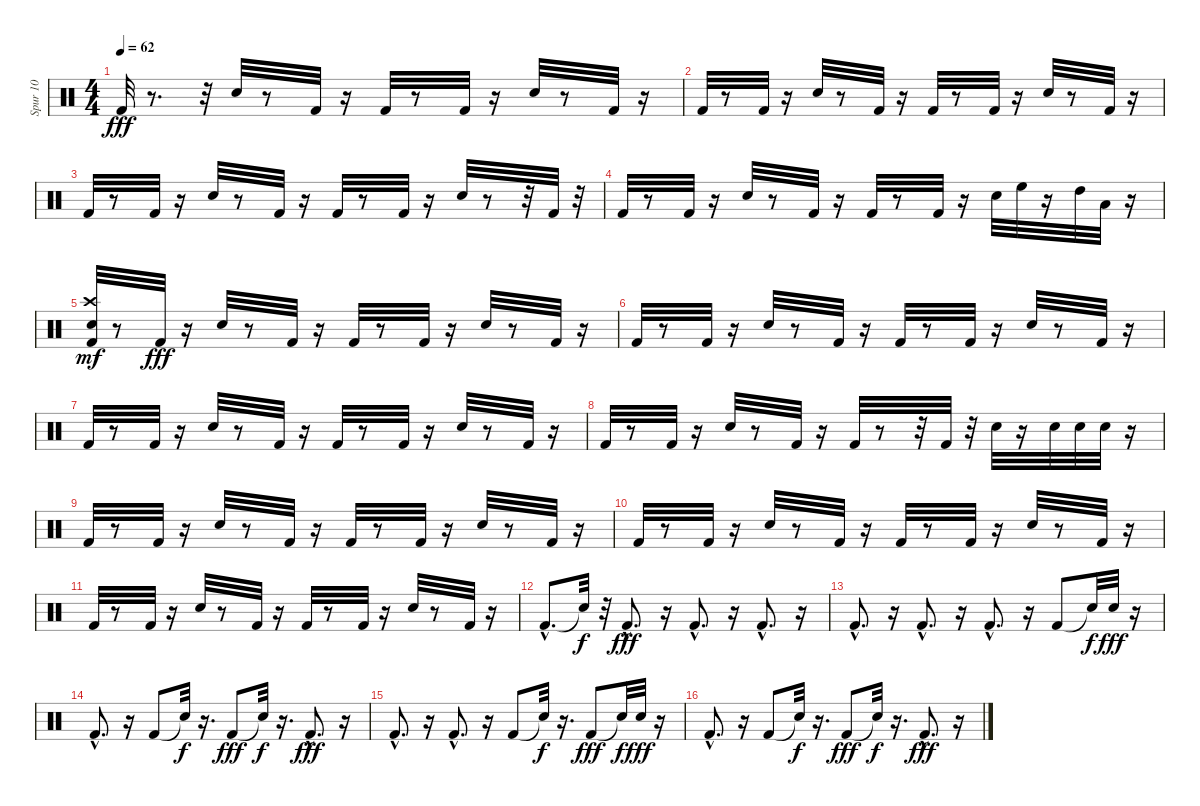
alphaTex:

\track ("Spur 10" "Spur 10") {instrument percussion}
\staff {score}
\articulation defaults
\ts (4 4)
\tempo 62
\clef neutral
\ks c "Kick (hit) 2".32{dy fff}
r.8{d} r.32 "Electric Snare (hit)".32 r.8 "Kick (hit) 2".32 r.16 "Kick (hit) 2".32 r.8 "Kick (hit) 2".32 r.16 "Electric Snare (hit)".32 r.8 "Kick (hit) 2".32 r.16 |
"Kick (hit) 2".32 r.8 "Kick (hit) 2".32 r.16 "Electric Snare (hit)".32 r.8 "Kick (hit) 2".32 r.16 "Kick (hit) 2".32 r.8 "Kick (hit) 2".32 r.16 "Electric Snare (hit)".32 r.8 "Kick (hit) 2".32 r.16 |
"Kick (hit) 2".32 r.8 "Kick (hit) 2".32 r.16 "Electric Snare (hit)".32 r.8 "Kick (hit) 2".32 r.16 "Kick (hit) 2".32 r.8 "Kick (hit) 2".32 r.16 "Electric Snare (hit)".32 r.8 r.32 "Kick (hit) 2".32 r.32 |
"Kick (hit) 2".32 r.8 "Kick (hit) 2".32 r.16 "Electric Snare (hit)".32 r.8 "Kick (hit) 2".32 r.16 "Kick (hit) 2".32 r.8 "Kick (hit) 2".32 r.16 "Electric Snare (hit)".32 "High Floor Tom (hit)".32 r.16 "High Tom (hit)".32 "Low Tom (hit)".32 r.16 |
("Crash high (hit)" "Kick (hit) 2" "Snare (hit) 2").32{dy mf} r.8 "Kick (hit) 2".32{dy fff} r.16 "Electric Snare (hit)".32 r.8 "Kick (hit) 2".32 r.16 "Kick (hit) 2".32 r.8 "Kick (hit) 2".32 r.16 "Electric Snare (hit)".32 r.8 "Kick (hit) 2".32 r.16 |
"Kick (hit) 2".32 r.8 "Kick (hit) 2".32 r.16 "Electric Snare (hit)".32 r.8 "Kick (hit) 2".32 r.16 "Kick (hit) 2".32 r.8 "Kick (hit) 2".32 r.16 "Electric Snare (hit)".32 r.8 "Kick (hit) 2".32 r.16 |
"Kick (hit) 2".32 r.8 "Kick (hit) 2".32 r.16 "Electric Snare (hit)".32 r.8 "Kick (hit) 2".32 r.16 "Kick (hit) 2".32 r.8 "Kick (hit) 2".32 r.16 "Electric Snare (hit)".32 r.8 "Kick (hit) 2".32 r.16 |
"Kick (hit) 2".32 r.8 "Kick (hit) 2".32 r.16 "Electric Snare (hit)".32 r.8 "Kick (hit) 2".32 r.16 "Kick (hit) 2".32 r.8 r.32 "Kick (hit) 2".32 r.32 "Electric Snare (hit)".32 r.16 "Electric Snare (hit)".32 "Electric Snare (hit)".32 "Electric Snare (hit)".32 r.16 |
"Kick (hit) 2".32 r.8 "Kick (hit) 2".32 r.16 "Electric Snare (hit)".32 r.8 "Kick (hit) 2".32 r.16 "Kick (hit) 2".32 r.8 "Kick (hit) 2".32 r.16 "Electric Snare (hit)".32 r.8 "Kick (hit) 2".32 r.16 |
"Kick (hit) 2".32 r.8 "Kick (hit) 2".32 r.16 "Electric Snare (hit)".32 r.8 "Kick (hit) 2".32 r.16 "Kick (hit) 2".32 r.8 "Kick (hit) 2".32 r.16 "Electric Snare (hit)".32 r.8 "Kick (hit) 2".32 r.16 |
"Kick (hit) 2".32 r.8 "Kick (hit) 2".32 r.16 "Electric Snare (hit)".32 r.8 "Kick (hit) 2".32 r.16 "Kick (hit) 2".32 r.8 "Kick (hit) 2".32 r.16 "Electric Snare (hit)".32 r.8 "Kick (hit) 2".32 r.16 |
"Kick (hit) 2"{hac}.8{d} "Snare (hit)"{t}.32{dy f} r.32 "Kick (hit) 2"{hac}.8{d dy fff} r.16 "Kick (hit) 2"{hac}.8{d} r.16 "Kick (hit) 2"{hac}.8{d} r.16 |
"Kick (hit) 2"{hac}.8{d} r.16 "Kick (hit) 2"{hac}.8{d} r.16 "Kick (hit) 2"{hac}.8{d} r.16 "Kick (hit) 2".8 "Snare (hit)"{t}.32{dy f} "Electric Snare (hit)".32{dy fff} r.16 |
"Kick (hit) 2"{hac}.8{d} r.16 "Kick (hit) 2".8 "Snare (hit)"{t}.32{dy f} r.16{d} "Kick (hit) 2".8{dy fff} "Snare (hit)"{t}.32{dy f} r.16{d} "Kick (hit) 2"{hac}.8{d dy fff} r.16 |
"Kick (hit) 2"{hac}.8{d} r.16 "Kick (hit) 2"{hac}.8{d} r.16 "Kick (hit) 2".8 "Snare (hit)"{t}.32{dy f} r.16{d} "Kick (hit) 2".8{dy fff} "Snare (hit)"{t}.32{dy f} "Electric Snare (hit)".32{dy fff} r.16 |
"Kick (hit) 2"{hac}.8{d} r.16 "Kick (hit) 2".8 "Snare (hit)"{t}.32{dy f} r.16{d} "Kick (hit) 2".8{dy fff} "Snare (hit)"{t}.32{dy f} r.16{d} "Kick (hit) 2"{hac}.8{d dy fff} r.16
